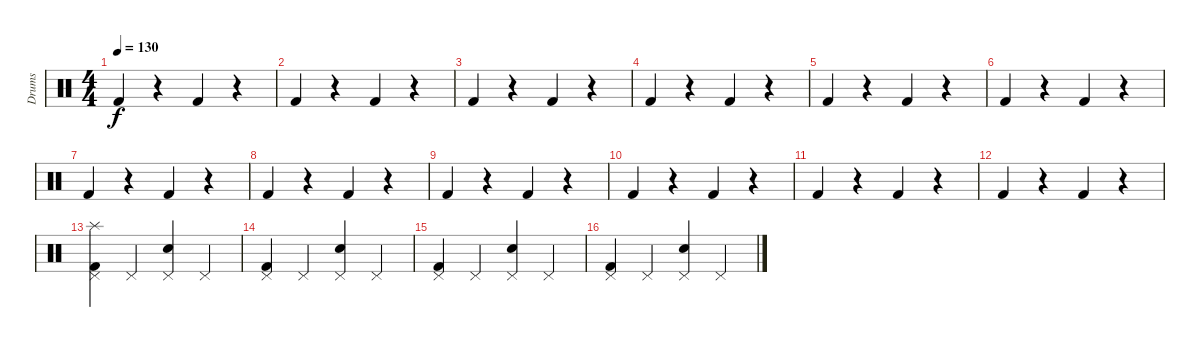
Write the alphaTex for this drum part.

\track ("Drums" "Drums") {instrument percussion}
\staff {score}
\articulation defaults
\ts (4 4)
\tempo 130
\clef neutral
\ks c "Kick (hit) 2".4{dy f}
r.4 "Kick (hit) 2".4 r.4 |
"Kick (hit) 2".4 r.4 "Kick (hit) 2".4 r.4 |
"Kick (hit) 2".4 r.4 "Kick (hit) 2".4 r.4 |
"Kick (hit) 2".4 r.4 "Kick (hit) 2".4 r.4 |
"Kick (hit) 2".4 r.4 "Kick (hit) 2".4 r.4 |
"Kick (hit) 2".4 r.4 "Kick (hit) 2".4 r.4 |
"Kick (hit) 2".4 r.4 "Kick (hit) 2".4 r.4 |
"Kick (hit) 2".4 r.4 "Kick (hit) 2".4 r.4 |
"Kick (hit) 2".4 r.4 "Kick (hit) 2".4 r.4 |
"Kick (hit) 2".4 r.4 "Kick (hit) 2".4 r.4 |
"Kick (hit) 2".4 r.4 "Kick (hit) 2".4 r.4 |
"Kick (hit) 2".4 r.4 "Kick (hit) 2".4 r.4 |
("Pedal Hi-Hat (hit)" "Splash (hit)" "Kick (hit) 2").4 "Pedal Hi-Hat (hit)".4 ("Pedal Hi-Hat (hit)" "Snare (hit) 2").4 "Pedal Hi-Hat (hit)".4 |
("Pedal Hi-Hat (hit)" "Kick (hit) 2").4 "Pedal Hi-Hat (hit)".4 ("Pedal Hi-Hat (hit)" "Snare (hit) 2").4 "Pedal Hi-Hat (hit)".4 |
("Pedal Hi-Hat (hit)" "Kick (hit) 2").4 "Pedal Hi-Hat (hit)".4 ("Pedal Hi-Hat (hit)" "Snare (hit) 2").4 "Pedal Hi-Hat (hit)".4 |
("Pedal Hi-Hat (hit)" "Kick (hit) 2").4 "Pedal Hi-Hat (hit)".4 ("Pedal Hi-Hat (hit)" "Snare (hit) 2").4 "Pedal Hi-Hat (hit)".4
